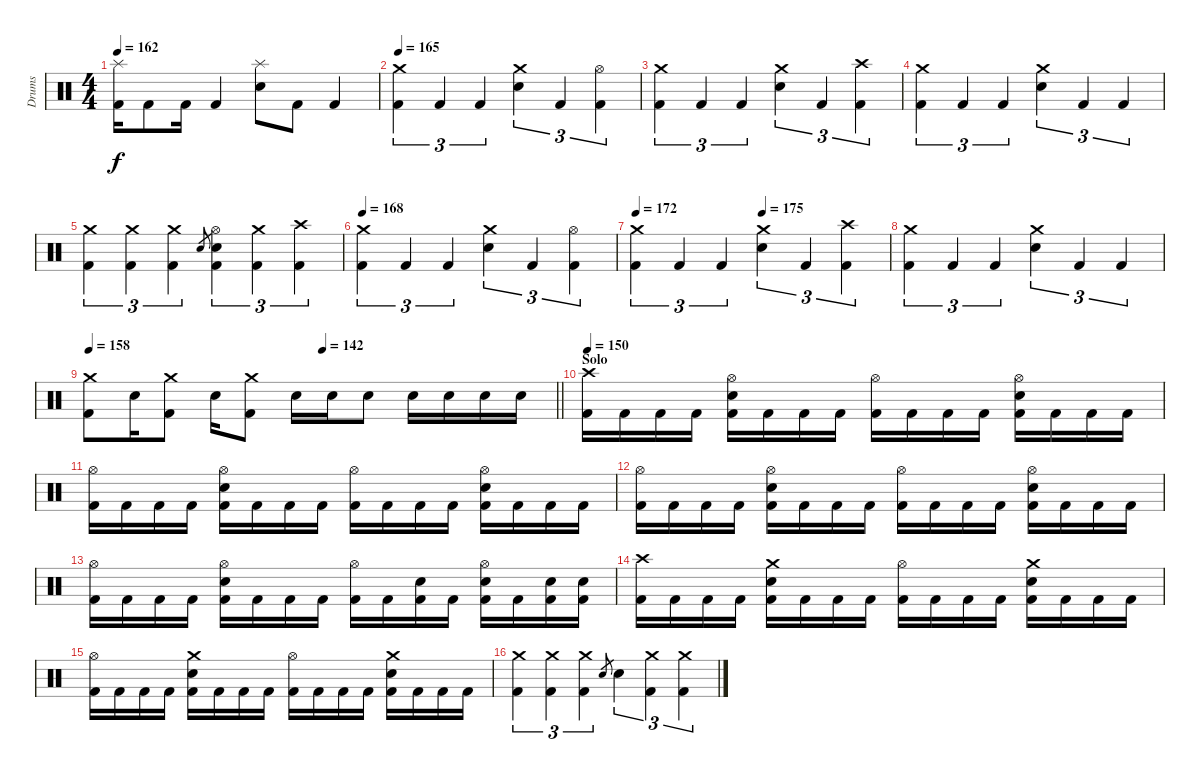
\track ("Drums" "Drums") {instrument percussion}
\staff {score}
\articulation defaults
\ts (4 4)
\tempo 162
\clef neutral
\ks c
("Splash (hit)" "Kick (hit) 2").16{dy f} "Kick (hit) 2".8 "Kick (hit) 2".16 "Kick (hit) 2".4 ("Splash (hit)" "Snare (hit) 2").8 "Kick (hit) 2".8 "Kick (hit) 2".4 |
\tempo 165
("Crash medium (hit)" "Kick (hit) 2").4{tu (3 2)} "Kick (hit) 2".4{tu (3 2)} "Kick (hit) 2".4{tu (3 2)} ("Crash medium (hit)" "Snare (hit) 2").4{tu (3 2)} "Kick (hit) 2".4{tu (3 2)} ("Hi-Hat (open)" "Kick (hit) 2").4{tu (3 2)} |
("Crash medium (hit)" "Kick (hit) 2").4{tu (3 2)} "Kick (hit) 2".4{tu (3 2)} "Kick (hit) 2".4{tu (3 2)} ("Crash medium (hit)" "Snare (hit) 2").4{tu (3 2)} "Kick (hit) 2".4{tu (3 2)} ("Crash high (hit)" "Kick (hit) 2").4{tu (3 2)} |
("Crash medium (hit)" "Kick (hit) 2").4{tu (3 2)} "Kick (hit) 2".4{tu (3 2)} "Kick (hit) 2".4{tu (3 2)} ("Crash medium (hit)" "Snare (hit) 2").4{tu (3 2)} "Kick (hit) 2".4{tu (3 2)} "Kick (hit) 2".4{tu (3 2)} |
("Crash medium (hit)" "Kick (hit) 2").4{tu (3 2)} ("Crash medium (hit)" "Kick (hit) 2").4{tu (3 2)} ("Crash medium (hit)" "Kick (hit) 2").4{tu (3 2)} "Snare (hit) 2".8{gr} ("Hi-Hat (open)" "Snare (hit) 2" "Kick (hit) 2").4{tu (3 2)} ("Crash medium (hit)" "Kick (hit) 2").4{tu (3 2)} ("Crash high (hit)" "Kick (hit) 2").4{tu (3 2)} |
\tempo 168
("Crash medium (hit)" "Kick (hit) 2").4{tu (3 2)} "Kick (hit) 2".4{tu (3 2)} "Kick (hit) 2".4{tu (3 2)} ("Crash medium (hit)" "Snare (hit) 2").4{tu (3 2)} "Kick (hit) 2".4{tu (3 2)} ("Hi-Hat (open)" "Kick (hit) 2").4{tu (3 2)} |
\tempo 172
\tempo (175 0.5)
("Crash medium (hit)" "Kick (hit) 2").4{tu (3 2)} "Kick (hit) 2".4{tu (3 2)} "Kick (hit) 2".4{tu (3 2)} ("Crash medium (hit)" "Snare (hit) 2").4{tu (3 2)} "Kick (hit) 2".4{tu (3 2)} ("Crash high (hit)" "Kick (hit) 2").4{tu (3 2)} |
("Crash medium (hit)" "Kick (hit) 2").4{tu (3 2)} "Kick (hit) 2".4{tu (3 2)} "Kick (hit) 2".4{tu (3 2)} ("Crash medium (hit)" "Snare (hit) 2").4{tu (3 2)} "Kick (hit) 2".4{tu (3 2)} "Kick (hit) 2".4{tu (3 2)} |
\tempo 158
\tempo (142 0.5)
\barLineRight lightlight
("Crash medium (hit)" "Kick (hit) 2").8 "Snare (hit) 2".16 ("Crash medium (hit)" "Kick (hit) 2").8 "Snare (hit) 2".16 ("Crash medium (hit)" "Kick (hit) 2").8 "Snare (hit) 2".16 "Snare (hit) 2".16 "Snare (hit) 2".8 "Snare (hit) 2".16 "Snare (hit) 2".16 "Snare (hit) 2".16 "Snare (hit) 2".16 |
\section ("" "Solo")
\tempo 150
("Crash high (hit)" "Kick (hit) 2").16 "Kick (hit) 2".16 "Kick (hit) 2".16 "Kick (hit) 2".16 ("Hi-Hat (open)" "Snare (hit) 2" "Kick (hit) 2").16 "Kick (hit) 2".16 "Kick (hit) 2".16 "Kick (hit) 2".16 ("Hi-Hat (open)" "Kick (hit) 2").16 "Kick (hit) 2".16 "Kick (hit) 2".16 "Kick (hit) 2".16 ("Hi-Hat (open)" "Snare (hit) 2" "Kick (hit) 2").16 "Kick (hit) 2".16 "Kick (hit) 2".16 "Kick (hit) 2".16 |
("Hi-Hat (open)" "Kick (hit) 2").16 "Kick (hit) 2".16 "Kick (hit) 2".16 "Kick (hit) 2".16 ("Hi-Hat (open)" "Snare (hit) 2" "Kick (hit) 2").16 "Kick (hit) 2".16 "Kick (hit) 2".16 "Kick (hit) 2".16 ("Hi-Hat (open)" "Kick (hit) 2").16 "Kick (hit) 2".16 "Kick (hit) 2".16 "Kick (hit) 2".16 ("Hi-Hat (open)" "Snare (hit) 2" "Kick (hit) 2").16 "Kick (hit) 2".16 "Kick (hit) 2".16 "Kick (hit) 2".16 |
("Hi-Hat (open)" "Kick (hit) 2").16 "Kick (hit) 2".16 "Kick (hit) 2".16 "Kick (hit) 2".16 ("Hi-Hat (open)" "Snare (hit) 2" "Kick (hit) 2").16 "Kick (hit) 2".16 "Kick (hit) 2".16 "Kick (hit) 2".16 ("Hi-Hat (open)" "Kick (hit) 2").16 "Kick (hit) 2".16 "Kick (hit) 2".16 "Kick (hit) 2".16 ("Hi-Hat (open)" "Snare (hit) 2" "Kick (hit) 2").16 "Kick (hit) 2".16 "Kick (hit) 2".16 "Kick (hit) 2".16 |
("Hi-Hat (open)" "Kick (hit) 2").16 "Kick (hit) 2".16 "Kick (hit) 2".16 "Kick (hit) 2".16 ("Hi-Hat (open)" "Snare (hit) 2" "Kick (hit) 2").16 "Kick (hit) 2".16 "Kick (hit) 2".16 "Kick (hit) 2".16 ("Hi-Hat (open)" "Kick (hit) 2").16 "Kick (hit) 2".16 ("Snare (hit) 2" "Kick (hit) 2").16 "Kick (hit) 2".16 ("Hi-Hat (open)" "Snare (hit) 2" "Kick (hit) 2").16 "Kick (hit) 2".16 ("Snare (hit) 2" "Kick (hit) 2").16 ("Snare (hit) 2" "Kick (hit) 2").16 |
("Crash high (hit)" "Kick (hit) 2").16 "Kick (hit) 2".16 "Kick (hit) 2".16 "Kick (hit) 2".16 ("Crash medium (hit)" "Snare (hit) 2" "Kick (hit) 2").16 "Kick (hit) 2".16 "Kick (hit) 2".16 "Kick (hit) 2".16 ("Hi-Hat (open)" "Kick (hit) 2").16 "Kick (hit) 2".16 "Kick (hit) 2".16 "Kick (hit) 2".16 ("Crash medium (hit)" "Snare (hit) 2" "Kick (hit) 2").16 "Kick (hit) 2".16 "Kick (hit) 2".16 "Kick (hit) 2".16 |
("Hi-Hat (open)" "Kick (hit) 2").16 "Kick (hit) 2".16 "Kick (hit) 2".16 "Kick (hit) 2".16 ("Crash medium (hit)" "Snare (hit) 2" "Kick (hit) 2").16 "Kick (hit) 2".16 "Kick (hit) 2".16 "Kick (hit) 2".16 ("Hi-Hat (open)" "Kick (hit) 2").16 "Kick (hit) 2".16 "Kick (hit) 2".16 "Kick (hit) 2".16 ("Crash medium (hit)" "Snare (hit) 2" "Kick (hit) 2").16 "Kick (hit) 2".16 "Kick (hit) 2".16 "Kick (hit) 2".16 |
("Crash medium (hit)" "Kick (hit) 2").4{tu (3 2)} ("Crash medium (hit)" "Kick (hit) 2").4{tu (3 2)} ("Crash medium (hit)" "Kick (hit) 2").4{tu (3 2)} "Snare (hit) 2".8{gr} "Snare (hit) 2".4{tu (3 2)} ("Crash medium (hit)" "Kick (hit) 2").4{tu (3 2)} ("Crash medium (hit)" "Kick (hit) 2").4{tu (3 2)}
